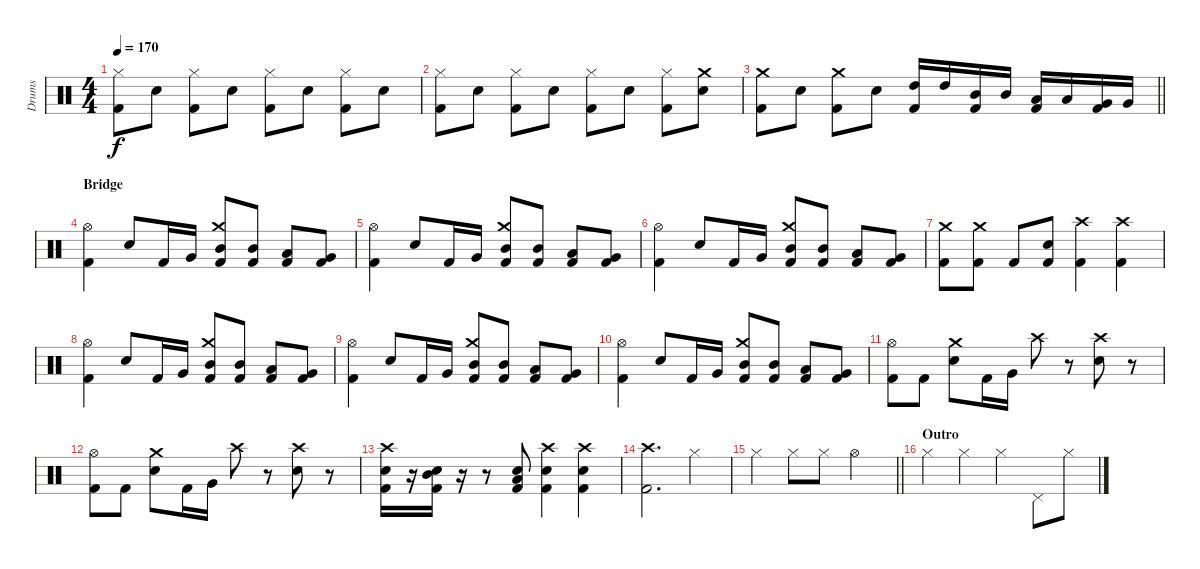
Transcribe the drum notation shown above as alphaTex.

\track ("Drums" "Drums") {instrument percussion}
\staff {score}
\articulation defaults
\ts (4 4)
\tempo 170
\clef neutral
\ks c
("Hi-Hat (closed)" "Kick (hit) 2").8{dy f} "Electric Snare (hit)".8 ("Hi-Hat (closed)" "Kick (hit) 2").8 "Electric Snare (hit)".8 ("Hi-Hat (closed)" "Kick (hit) 2").8 "Electric Snare (hit)".8 ("Hi-Hat (closed)" "Kick (hit) 2").8 "Electric Snare (hit)".8 |
("Hi-Hat (closed)" "Kick (hit) 2").8 "Electric Snare (hit)".8 ("Hi-Hat (closed)" "Kick (hit) 2").8 "Electric Snare (hit)".8 ("Hi-Hat (closed)" "Kick (hit) 2").8 "Electric Snare (hit)".8 ("Hi-Hat (closed)" "Kick (hit) 2").8 ("Crash medium (hit)" "Electric Snare (hit)").8 |
\barLineRight lightlight
("Crash medium (hit)" "Kick (hit) 2").8 "Electric Snare (hit)".8 ("Crash medium (hit)" "Kick (hit) 2").8 "Electric Snare (hit)".8 ("High Tom (hit)" "Kick (hit) 2").16 "High Tom (hit)".16 ("Mid Tom (hit)" "Kick (hit) 2").16 "Mid Tom (hit)".16 ("Low Tom (hit)" "Kick (hit) 2").16 "Low Tom (hit)".16 ("Very Low Tom (hit)" "Kick (hit) 2").16 "Very Low Tom (hit)".16 |
\section ("" "Bridge")
("Hi-Hat (open)" "Kick (hit) 2").4 "Electric Snare (hit)".8 "Kick (hit) 2".16 "Very Low Tom (hit)".16 ("Crash medium (hit)" "Mid Tom (hit)" "Kick (hit) 2").8 ("Mid Tom (hit)" "Kick (hit) 2").8 ("Low Tom (hit)" "Kick (hit) 2").8 ("Very Low Tom (hit)" "Kick (hit) 2").8 |
("Hi-Hat (open)" "Kick (hit) 2").4 "Electric Snare (hit)".8 "Kick (hit) 2".16 "Very Low Tom (hit)".16 ("Crash medium (hit)" "Mid Tom (hit)" "Kick (hit) 2").8 ("Mid Tom (hit)" "Kick (hit) 2").8 ("Low Tom (hit)" "Kick (hit) 2").8 ("Very Low Tom (hit)" "Kick (hit) 2").8 |
("Hi-Hat (open)" "Kick (hit) 2").4 "Electric Snare (hit)".8 "Kick (hit) 2".16 "Very Low Tom (hit)".16 ("Crash medium (hit)" "Mid Tom (hit)" "Kick (hit) 2").8 ("Mid Tom (hit)" "Kick (hit) 2").8 ("Low Tom (hit)" "Kick (hit) 2").8 ("Very Low Tom (hit)" "Kick (hit) 2").8 |
("Crash medium (hit)" "Kick (hit) 2").8 ("Crash medium (hit)" "Kick (hit) 2").8 "Kick (hit) 2".8 ("Electric Snare (hit)" "Kick (hit) 2").8 ("Crash high (hit)" "Kick (hit) 2").4 ("Crash high (hit)" "Kick (hit) 2").4 |
("Hi-Hat (open)" "Kick (hit) 2").4 "Electric Snare (hit)".8 "Kick (hit) 2".16 "Very Low Tom (hit)".16 ("Crash medium (hit)" "Mid Tom (hit)" "Kick (hit) 2").8 ("Mid Tom (hit)" "Kick (hit) 2").8 ("Low Tom (hit)" "Kick (hit) 2").8 ("Very Low Tom (hit)" "Kick (hit) 2").8 |
("Hi-Hat (open)" "Kick (hit) 2").4 "Electric Snare (hit)".8 "Kick (hit) 2".16 "Very Low Tom (hit)".16 ("Crash medium (hit)" "Mid Tom (hit)" "Kick (hit) 2").8 ("Mid Tom (hit)" "Kick (hit) 2").8 ("Low Tom (hit)" "Kick (hit) 2").8 ("Very Low Tom (hit)" "Kick (hit) 2").8 |
("Hi-Hat (open)" "Kick (hit) 2").4 "Electric Snare (hit)".8 "Kick (hit) 2".16 "Very Low Tom (hit)".16 ("Crash medium (hit)" "Mid Tom (hit)" "Kick (hit) 2").8 ("Mid Tom (hit)" "Kick (hit) 2").8 ("Low Tom (hit)" "Kick (hit) 2").8 ("Very Low Tom (hit)" "Kick (hit) 2").8 |
("Hi-Hat (open)" "Kick (hit) 2").8 "Kick (hit) 2".8 ("Crash medium (hit)" "Electric Snare (hit)").8 "Kick (hit) 2".16 "Very Low Tom (hit)".16 "Crash high (hit)".8 r.8 ("Crash high (hit)" "Electric Snare (hit)").8 r.8 |
("Hi-Hat (open)" "Kick (hit) 2").8 "Kick (hit) 2".8 ("Crash medium (hit)" "Electric Snare (hit)").8 "Kick (hit) 2".16 "Very Low Tom (hit)".16 "Crash high (hit)".8 r.8 ("Crash high (hit)" "Electric Snare (hit)").8 r.8 |
("Crash high (hit)" "Electric Snare (hit)" "Kick (hit) 2").16 r.16 ("Mid Tom (hit)" "Electric Snare (hit)" "Kick (hit) 2").16 r.16 r.8 ("Low Tom (hit)" "Electric Snare (hit)" "Kick (hit) 2").8 ("Crash high (hit)" "Electric Snare (hit)" "Kick (hit) 2").4 ("Crash high (hit)" "Electric Snare (hit)" "Kick (hit) 2").4 |
("Crash high (hit)" "Kick (hit) 2").2{d} "Hi-Hat (closed)".4 |
\barLineRight lightlight "Hi-Hat (closed)".4 "Hi-Hat (closed)".8 "Hi-Hat (closed)".8 "Hi-Hat (open)".2
|
\section ("" "Outro")
"Hi-Hat (closed)".4 "Hi-Hat (closed)".4 "Hi-Hat (closed)".4 "Pedal Hi-Hat (hit)".8 "Hi-Hat (closed)".8
